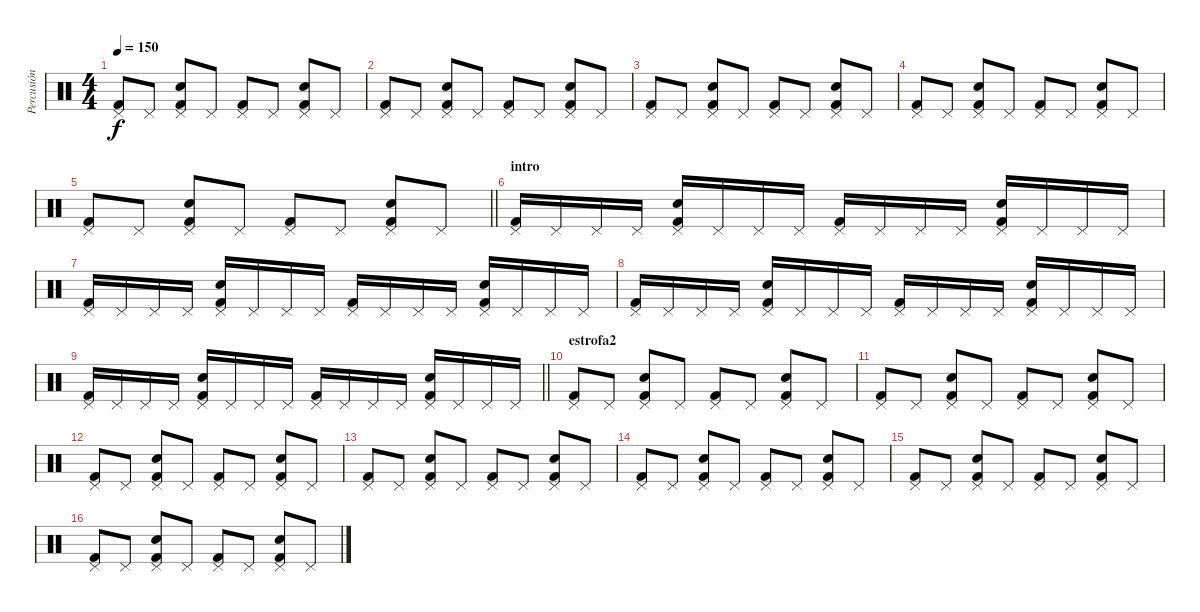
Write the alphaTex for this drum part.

\track ("Percusión" "Percusión") {instrument percussion}
\staff {score}
\articulation defaults
\ts (4 4)
\tempo 150
\clef neutral
\ks c
("Pedal Hi-Hat (hit)" "Kick (hit) 2").8{dy f} "Pedal Hi-Hat (hit)".8 ("Electric Snare (hit)" "Pedal Hi-Hat (hit)" "Kick (hit) 2").8 "Pedal Hi-Hat (hit)".8 ("Pedal Hi-Hat (hit)" "Kick (hit) 2").8 "Pedal Hi-Hat (hit)".8 ("Electric Snare (hit)" "Pedal Hi-Hat (hit)" "Kick (hit) 2").8 "Pedal Hi-Hat (hit)".8 |
("Pedal Hi-Hat (hit)" "Kick (hit) 2").8 "Pedal Hi-Hat (hit)".8 ("Electric Snare (hit)" "Pedal Hi-Hat (hit)" "Kick (hit) 2").8 "Pedal Hi-Hat (hit)".8 ("Pedal Hi-Hat (hit)" "Kick (hit) 2").8 "Pedal Hi-Hat (hit)".8 ("Electric Snare (hit)" "Pedal Hi-Hat (hit)" "Kick (hit) 2").8 "Pedal Hi-Hat (hit)".8 |
("Pedal Hi-Hat (hit)" "Kick (hit) 2").8 "Pedal Hi-Hat (hit)".8 ("Electric Snare (hit)" "Pedal Hi-Hat (hit)" "Kick (hit) 2").8 "Pedal Hi-Hat (hit)".8 ("Pedal Hi-Hat (hit)" "Kick (hit) 2").8 "Pedal Hi-Hat (hit)".8 ("Electric Snare (hit)" "Pedal Hi-Hat (hit)" "Kick (hit) 2").8 "Pedal Hi-Hat (hit)".8 |
("Pedal Hi-Hat (hit)" "Kick (hit) 2").8 "Pedal Hi-Hat (hit)".8 ("Electric Snare (hit)" "Pedal Hi-Hat (hit)" "Kick (hit) 2").8 "Pedal Hi-Hat (hit)".8 ("Pedal Hi-Hat (hit)" "Kick (hit) 2").8 "Pedal Hi-Hat (hit)".8 ("Electric Snare (hit)" "Pedal Hi-Hat (hit)" "Kick (hit) 2").8 "Pedal Hi-Hat (hit)".8 |
\barLineRight lightlight
("Pedal Hi-Hat (hit)" "Kick (hit) 2").8 "Pedal Hi-Hat (hit)".8 ("Electric Snare (hit)" "Pedal Hi-Hat (hit)" "Kick (hit) 2").8 "Pedal Hi-Hat (hit)".8 ("Pedal Hi-Hat (hit)" "Kick (hit) 2").8 "Pedal Hi-Hat (hit)".8 ("Electric Snare (hit)" "Pedal Hi-Hat (hit)" "Kick (hit) 2").8 "Pedal Hi-Hat (hit)".8 |
\section ("" "intro")
("Pedal Hi-Hat (hit)" "Kick (hit) 2").16 "Pedal Hi-Hat (hit)".16 "Pedal Hi-Hat (hit)".16 "Pedal Hi-Hat (hit)".16 ("Pedal Hi-Hat (hit)" "Electric Snare (hit)" "Kick (hit) 2").16 "Pedal Hi-Hat (hit)".16 "Pedal Hi-Hat (hit)".16 "Pedal Hi-Hat (hit)".16 ("Pedal Hi-Hat (hit)" "Kick (hit) 2").16 "Pedal Hi-Hat (hit)".16 "Pedal Hi-Hat (hit)".16 "Pedal Hi-Hat (hit)".16 ("Pedal Hi-Hat (hit)" "Electric Snare (hit)" "Kick (hit) 2").16 "Pedal Hi-Hat (hit)".16 "Pedal Hi-Hat (hit)".16 "Pedal Hi-Hat (hit)".16 |
("Pedal Hi-Hat (hit)" "Kick (hit) 2").16 "Pedal Hi-Hat (hit)".16 "Pedal Hi-Hat (hit)".16 "Pedal Hi-Hat (hit)".16 ("Pedal Hi-Hat (hit)" "Electric Snare (hit)" "Kick (hit) 2").16 "Pedal Hi-Hat (hit)".16 "Pedal Hi-Hat (hit)".16 "Pedal Hi-Hat (hit)".16 ("Pedal Hi-Hat (hit)" "Kick (hit) 2").16 "Pedal Hi-Hat (hit)".16 "Pedal Hi-Hat (hit)".16 "Pedal Hi-Hat (hit)".16 ("Pedal Hi-Hat (hit)" "Electric Snare (hit)" "Kick (hit) 2").16 "Pedal Hi-Hat (hit)".16 "Pedal Hi-Hat (hit)".16 "Pedal Hi-Hat (hit)".16 |
("Pedal Hi-Hat (hit)" "Kick (hit) 2").16 "Pedal Hi-Hat (hit)".16 "Pedal Hi-Hat (hit)".16 "Pedal Hi-Hat (hit)".16 ("Pedal Hi-Hat (hit)" "Electric Snare (hit)" "Kick (hit) 2").16 "Pedal Hi-Hat (hit)".16 "Pedal Hi-Hat (hit)".16 "Pedal Hi-Hat (hit)".16 ("Pedal Hi-Hat (hit)" "Kick (hit) 2").16 "Pedal Hi-Hat (hit)".16 "Pedal Hi-Hat (hit)".16 "Pedal Hi-Hat (hit)".16 ("Pedal Hi-Hat (hit)" "Electric Snare (hit)" "Kick (hit) 2").16 "Pedal Hi-Hat (hit)".16 "Pedal Hi-Hat (hit)".16 "Pedal Hi-Hat (hit)".16 |
\barLineRight lightlight
("Pedal Hi-Hat (hit)" "Kick (hit) 2").16 "Pedal Hi-Hat (hit)".16 "Pedal Hi-Hat (hit)".16 "Pedal Hi-Hat (hit)".16 ("Pedal Hi-Hat (hit)" "Electric Snare (hit)" "Kick (hit) 2").16 "Pedal Hi-Hat (hit)".16 "Pedal Hi-Hat (hit)".16 "Pedal Hi-Hat (hit)".16 ("Pedal Hi-Hat (hit)" "Kick (hit) 2").16 "Pedal Hi-Hat (hit)".16 "Pedal Hi-Hat (hit)".16 "Pedal Hi-Hat (hit)".16 ("Pedal Hi-Hat (hit)" "Electric Snare (hit)" "Kick (hit) 2").16 "Pedal Hi-Hat (hit)".16 "Pedal Hi-Hat (hit)".16 "Pedal Hi-Hat (hit)".16 |
\section ("" "estrofa2")
("Pedal Hi-Hat (hit)" "Kick (hit) 2").8 "Pedal Hi-Hat (hit)".8 ("Electric Snare (hit)" "Pedal Hi-Hat (hit)" "Kick (hit) 2").8 "Pedal Hi-Hat (hit)".8 ("Pedal Hi-Hat (hit)" "Kick (hit) 2").8 "Pedal Hi-Hat (hit)".8 ("Electric Snare (hit)" "Pedal Hi-Hat (hit)" "Kick (hit) 2").8 "Pedal Hi-Hat (hit)".8 |
("Pedal Hi-Hat (hit)" "Kick (hit) 2").8 "Pedal Hi-Hat (hit)".8 ("Electric Snare (hit)" "Pedal Hi-Hat (hit)" "Kick (hit) 2").8 "Pedal Hi-Hat (hit)".8 ("Pedal Hi-Hat (hit)" "Kick (hit) 2").8 "Pedal Hi-Hat (hit)".8 ("Electric Snare (hit)" "Pedal Hi-Hat (hit)" "Kick (hit) 2").8 "Pedal Hi-Hat (hit)".8 |
("Pedal Hi-Hat (hit)" "Kick (hit) 2").8 "Pedal Hi-Hat (hit)".8 ("Electric Snare (hit)" "Pedal Hi-Hat (hit)" "Kick (hit) 2").8 "Pedal Hi-Hat (hit)".8 ("Pedal Hi-Hat (hit)" "Kick (hit) 2").8 "Pedal Hi-Hat (hit)".8 ("Electric Snare (hit)" "Pedal Hi-Hat (hit)" "Kick (hit) 2").8 "Pedal Hi-Hat (hit)".8 |
("Pedal Hi-Hat (hit)" "Kick (hit) 2").8 "Pedal Hi-Hat (hit)".8 ("Electric Snare (hit)" "Pedal Hi-Hat (hit)" "Kick (hit) 2").8 "Pedal Hi-Hat (hit)".8 ("Pedal Hi-Hat (hit)" "Kick (hit) 2").8 "Pedal Hi-Hat (hit)".8 ("Electric Snare (hit)" "Pedal Hi-Hat (hit)" "Kick (hit) 2").8 "Pedal Hi-Hat (hit)".8 |
("Pedal Hi-Hat (hit)" "Kick (hit) 2").8 "Pedal Hi-Hat (hit)".8 ("Electric Snare (hit)" "Pedal Hi-Hat (hit)" "Kick (hit) 2").8 "Pedal Hi-Hat (hit)".8 ("Pedal Hi-Hat (hit)" "Kick (hit) 2").8 "Pedal Hi-Hat (hit)".8 ("Electric Snare (hit)" "Pedal Hi-Hat (hit)" "Kick (hit) 2").8 "Pedal Hi-Hat (hit)".8 |
("Pedal Hi-Hat (hit)" "Kick (hit) 2").8 "Pedal Hi-Hat (hit)".8 ("Electric Snare (hit)" "Pedal Hi-Hat (hit)" "Kick (hit) 2").8 "Pedal Hi-Hat (hit)".8 ("Pedal Hi-Hat (hit)" "Kick (hit) 2").8 "Pedal Hi-Hat (hit)".8 ("Electric Snare (hit)" "Pedal Hi-Hat (hit)" "Kick (hit) 2").8 "Pedal Hi-Hat (hit)".8 |
("Pedal Hi-Hat (hit)" "Kick (hit) 2").8 "Pedal Hi-Hat (hit)".8 ("Electric Snare (hit)" "Pedal Hi-Hat (hit)" "Kick (hit) 2").8 "Pedal Hi-Hat (hit)".8 ("Pedal Hi-Hat (hit)" "Kick (hit) 2").8 "Pedal Hi-Hat (hit)".8 ("Electric Snare (hit)" "Pedal Hi-Hat (hit)" "Kick (hit) 2").8 "Pedal Hi-Hat (hit)".8
